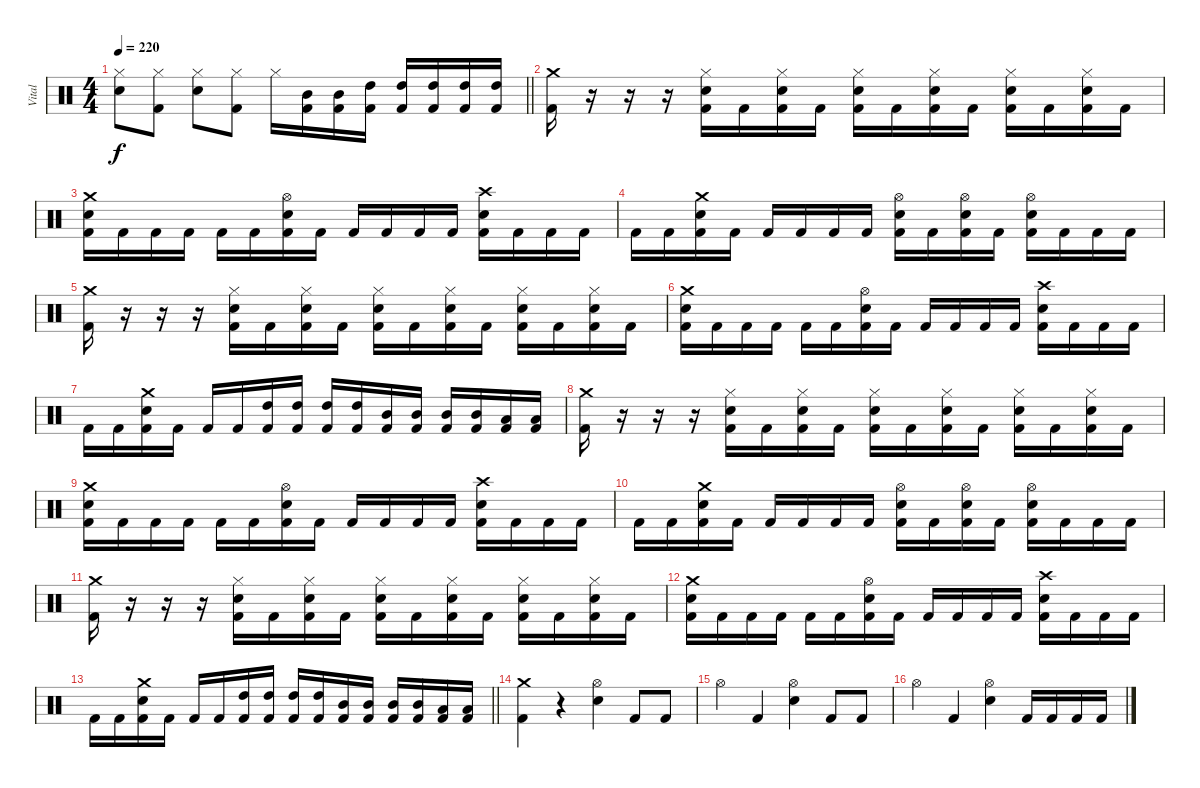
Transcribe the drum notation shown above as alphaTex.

\track ("Vital" "Vital") {instrument percussion}
\staff {score}
\articulation defaults
\ts (4 4)
\tempo 220
\clef neutral
\barLineRight lightlight
\ks c
("Hi-Hat (closed)" "Snare (hit) 2").8{dy f} ("Hi-Hat (closed)" "Kick (hit) 2").8 ("Hi-Hat (closed)" "Snare (hit) 2").8 ("Hi-Hat (closed)" "Kick (hit) 2").8 "Hi-Hat (closed)".16 ("Mid Tom (hit)" "Kick (hit) 2").16 ("Mid Tom (hit)" "Kick (hit) 2").16 ("High Tom (hit)" "Kick (hit) 2").16 ("High Tom (hit)" "Kick (hit) 2").16 ("High Tom (hit)" "Kick (hit) 2").16 ("High Tom (hit)" "Kick (hit) 2").16 ("High Tom (hit)" "Kick (hit) 2").16 |
("Crash medium (hit)" "Kick (hit) 2").16 r.16 r.16 r.16 ("Hi-Hat (closed)" "Snare (hit) 2" "Kick (hit) 2").16 "Kick (hit) 2".16 ("Hi-Hat (closed)" "Snare (hit) 2" "Kick (hit) 2").16 "Kick (hit) 2".16 ("Hi-Hat (closed)" "Snare (hit) 2" "Kick (hit) 2").16 "Kick (hit) 2".16 ("Hi-Hat (closed)" "Snare (hit) 2" "Kick (hit) 2").16 "Kick (hit) 2".16 ("Hi-Hat (closed)" "Snare (hit) 2" "Kick (hit) 2").16 "Kick (hit) 2".16 ("Hi-Hat (closed)" "Snare (hit) 2" "Kick (hit) 2").16 "Kick (hit) 2".16 |
("Crash medium (hit)" "Snare (hit) 2" "Kick (hit) 2").16 "Kick (hit) 2".16 "Kick (hit) 2".16 "Kick (hit) 2".16 "Kick (hit) 2".16 "Kick (hit) 2".16 ("Hi-Hat (open)" "Snare (hit) 2" "Kick (hit) 2").16 "Kick (hit) 2".16 "Kick (hit) 2".16 "Kick (hit) 2".16 "Kick (hit) 2".16 "Kick (hit) 2".16 ("Crash high (hit)" "Snare (hit) 2" "Kick (hit) 2").16 "Kick (hit) 2".16 "Kick (hit) 2".16 "Kick (hit) 2".16 |
"Kick (hit) 2".16 "Kick (hit) 2".16 ("Crash medium (hit)" "Snare (hit) 2" "Kick (hit) 2").16 "Kick (hit) 2".16 "Kick (hit) 2".16 "Kick (hit) 2".16 "Kick (hit) 2".16 "Kick (hit) 2".16 ("Hi-Hat (open)" "Snare (hit) 2" "Kick (hit) 2").16 "Kick (hit) 2".16 ("Hi-Hat (open)" "Snare (hit) 2" "Kick (hit) 2").16 "Kick (hit) 2".16 ("Hi-Hat (open)" "Snare (hit) 2" "Kick (hit) 2").16 "Kick (hit) 2".16 "Kick (hit) 2".16 "Kick (hit) 2".16 |
("Crash medium (hit)" "Kick (hit) 2").16 r.16 r.16 r.16 ("Hi-Hat (closed)" "Snare (hit) 2" "Kick (hit) 2").16 "Kick (hit) 2".16 ("Hi-Hat (closed)" "Snare (hit) 2" "Kick (hit) 2").16 "Kick (hit) 2".16 ("Hi-Hat (closed)" "Snare (hit) 2" "Kick (hit) 2").16 "Kick (hit) 2".16 ("Hi-Hat (closed)" "Snare (hit) 2" "Kick (hit) 2").16 "Kick (hit) 2".16 ("Hi-Hat (closed)" "Snare (hit) 2" "Kick (hit) 2").16 "Kick (hit) 2".16 ("Hi-Hat (closed)" "Snare (hit) 2" "Kick (hit) 2").16 "Kick (hit) 2".16 |
("Crash medium (hit)" "Snare (hit) 2" "Kick (hit) 2").16 "Kick (hit) 2".16 "Kick (hit) 2".16 "Kick (hit) 2".16 "Kick (hit) 2".16 "Kick (hit) 2".16 ("Hi-Hat (open)" "Snare (hit) 2" "Kick (hit) 2").16 "Kick (hit) 2".16 "Kick (hit) 2".16 "Kick (hit) 2".16 "Kick (hit) 2".16 "Kick (hit) 2".16 ("Crash high (hit)" "Snare (hit) 2" "Kick (hit) 2").16 "Kick (hit) 2".16 "Kick (hit) 2".16 "Kick (hit) 2".16 |
"Kick (hit) 2".16 "Kick (hit) 2".16 ("Crash medium (hit)" "Snare (hit) 2" "Kick (hit) 2").16 "Kick (hit) 2".16 "Kick (hit) 2".16 "Kick (hit) 2".16 ("High Tom (hit)" "Kick (hit) 2").16 ("High Tom (hit)" "Kick (hit) 2").16 ("High Tom (hit)" "Kick (hit) 2").16 ("High Tom (hit)" "Kick (hit) 2").16 ("Mid Tom (hit)" "Kick (hit) 2").16 ("Mid Tom (hit)" "Kick (hit) 2").16 ("Mid Tom (hit)" "Kick (hit) 2").16 ("Mid Tom (hit)" "Kick (hit) 2").16 ("Low Tom (hit)" "Kick (hit) 2").16 ("Low Tom (hit)" "Kick (hit) 2").16 |
("Crash medium (hit)" "Kick (hit) 2").16 r.16 r.16 r.16 ("Hi-Hat (closed)" "Snare (hit) 2" "Kick (hit) 2").16 "Kick (hit) 2".16 ("Hi-Hat (closed)" "Snare (hit) 2" "Kick (hit) 2").16 "Kick (hit) 2".16 ("Hi-Hat (closed)" "Snare (hit) 2" "Kick (hit) 2").16 "Kick (hit) 2".16 ("Hi-Hat (closed)" "Snare (hit) 2" "Kick (hit) 2").16 "Kick (hit) 2".16 ("Hi-Hat (closed)" "Snare (hit) 2" "Kick (hit) 2").16 "Kick (hit) 2".16 ("Hi-Hat (closed)" "Snare (hit) 2" "Kick (hit) 2").16 "Kick (hit) 2".16 |
("Crash medium (hit)" "Snare (hit) 2" "Kick (hit) 2").16 "Kick (hit) 2".16 "Kick (hit) 2".16 "Kick (hit) 2".16 "Kick (hit) 2".16 "Kick (hit) 2".16 ("Hi-Hat (open)" "Snare (hit) 2" "Kick (hit) 2").16 "Kick (hit) 2".16 "Kick (hit) 2".16 "Kick (hit) 2".16 "Kick (hit) 2".16 "Kick (hit) 2".16 ("Crash high (hit)" "Snare (hit) 2" "Kick (hit) 2").16 "Kick (hit) 2".16 "Kick (hit) 2".16 "Kick (hit) 2".16 |
"Kick (hit) 2".16 "Kick (hit) 2".16 ("Crash medium (hit)" "Snare (hit) 2" "Kick (hit) 2").16 "Kick (hit) 2".16 "Kick (hit) 2".16 "Kick (hit) 2".16 "Kick (hit) 2".16 "Kick (hit) 2".16 ("Hi-Hat (open)" "Snare (hit) 2" "Kick (hit) 2").16 "Kick (hit) 2".16 ("Hi-Hat (open)" "Snare (hit) 2" "Kick (hit) 2").16 "Kick (hit) 2".16 ("Hi-Hat (open)" "Snare (hit) 2" "Kick (hit) 2").16 "Kick (hit) 2".16 "Kick (hit) 2".16 "Kick (hit) 2".16 |
("Crash medium (hit)" "Kick (hit) 2").16 r.16 r.16 r.16 ("Hi-Hat (closed)" "Snare (hit) 2" "Kick (hit) 2").16 "Kick (hit) 2".16 ("Hi-Hat (closed)" "Snare (hit) 2" "Kick (hit) 2").16 "Kick (hit) 2".16 ("Hi-Hat (closed)" "Snare (hit) 2" "Kick (hit) 2").16 "Kick (hit) 2".16 ("Hi-Hat (closed)" "Snare (hit) 2" "Kick (hit) 2").16 "Kick (hit) 2".16 ("Hi-Hat (closed)" "Snare (hit) 2" "Kick (hit) 2").16 "Kick (hit) 2".16 ("Hi-Hat (closed)" "Snare (hit) 2" "Kick (hit) 2").16 "Kick (hit) 2".16 |
("Crash medium (hit)" "Snare (hit) 2" "Kick (hit) 2").16 "Kick (hit) 2".16 "Kick (hit) 2".16 "Kick (hit) 2".16 "Kick (hit) 2".16 "Kick (hit) 2".16 ("Hi-Hat (open)" "Snare (hit) 2" "Kick (hit) 2").16 "Kick (hit) 2".16 "Kick (hit) 2".16 "Kick (hit) 2".16 "Kick (hit) 2".16 "Kick (hit) 2".16 ("Crash high (hit)" "Snare (hit) 2" "Kick (hit) 2").16 "Kick (hit) 2".16 "Kick (hit) 2".16 "Kick (hit) 2".16 |
\barLineRight lightlight "Kick (hit) 2".16 "Kick (hit) 2".16
("Crash medium (hit)" "Snare (hit) 2" "Kick (hit) 2").16 "Kick (hit) 2".16 "Kick (hit) 2".16 "Kick (hit) 2".16 ("High Tom (hit)" "Kick (hit) 2").16 ("High Tom (hit)" "Kick (hit) 2").16 ("High Tom (hit)" "Kick (hit) 2").16 ("High Tom (hit)" "Kick (hit) 2").16 ("Mid Tom (hit)" "Kick (hit) 2").16 ("Mid Tom (hit)" "Kick (hit) 2").16 ("Mid Tom (hit)" "Kick (hit) 2").16 ("Mid Tom (hit)" "Kick (hit) 2").16 ("Low Tom (hit)" "Kick (hit) 2").16 ("Low Tom (hit)" "Kick (hit) 2").16 |
("Crash medium (hit)" "Kick (hit) 2").4 r.4 ("Hi-Hat (open)" "Snare (hit) 2").4 "Kick (hit) 2".8 "Kick (hit) 2".8 |
"Hi-Hat (open)".4 "Kick (hit) 2".4 ("Hi-Hat (open)" "Snare (hit) 2").4 "Kick (hit) 2".8 "Kick (hit) 2".8 |
"Hi-Hat (open)".4 "Kick (hit) 2".4 ("Hi-Hat (open)" "Snare (hit) 2").4 "Kick (hit) 2".16 "Kick (hit) 2".16 "Kick (hit) 2".16 "Kick (hit) 2".16
